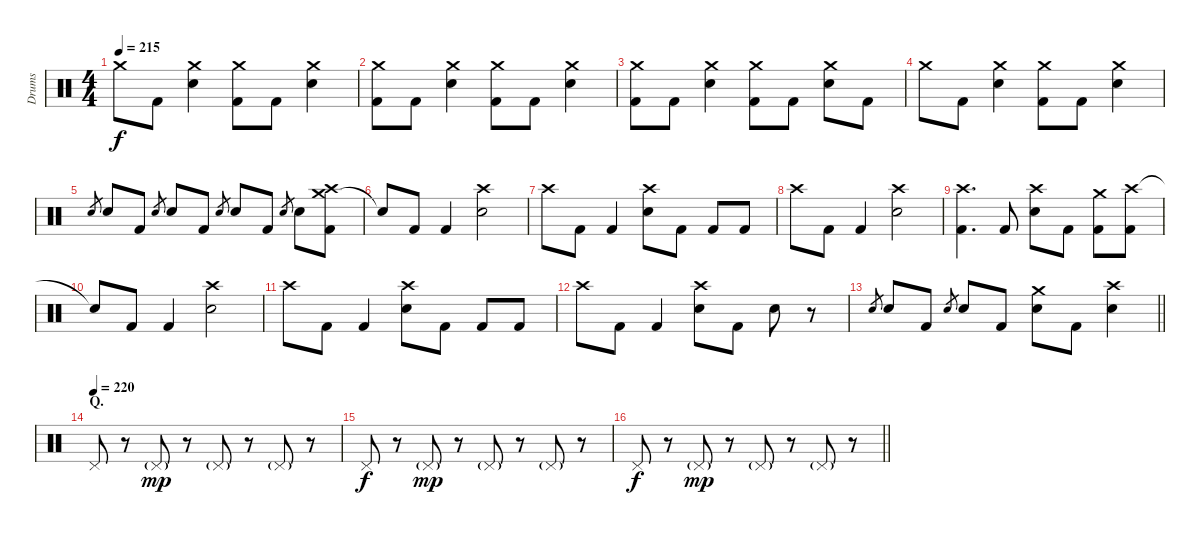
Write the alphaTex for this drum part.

\track ("Drums" "Drums") {instrument percussion}
\staff {score}
\articulation defaults
\ts (4 4)
\tempo 215
\clef neutral
\ks c "Crash medium (hit)".8{dy f} "Kick (hit) 2".8
("Crash medium (hit)" "Electric Snare (hit)").4 ("Crash medium (hit)" "Kick (hit) 2").8 "Kick (hit) 2".8 ("Crash medium (hit)" "Electric Snare (hit)").4 |
("Crash medium (hit)" "Kick (hit) 2").8 "Kick (hit) 2".8 ("Crash medium (hit)" "Electric Snare (hit)").4 ("Crash medium (hit)" "Kick (hit) 2").8 "Kick (hit) 2".8 ("Crash medium (hit)" "Electric Snare (hit)").4 |
("Crash medium (hit)" "Kick (hit) 2").8 "Kick (hit) 2".8 ("Crash medium (hit)" "Electric Snare (hit)").4 ("Crash medium (hit)" "Kick (hit) 2").8 "Kick (hit) 2".8 ("Crash medium (hit)" "Electric Snare (hit)").8 "Kick (hit) 2".8 |
"Crash medium (hit)".8 "Kick (hit) 2".8 ("Crash medium (hit)" "Electric Snare (hit)").4 ("Crash medium (hit)" "Kick (hit) 2").8 "Kick (hit) 2".8 ("Crash medium (hit)" "Electric Snare (hit)").4 |
"Electric Snare (hit)".8{gr} "Electric Snare (hit)".8 "Kick (hit) 2".8 "Electric Snare (hit)".8{gr} "Electric Snare (hit)".8 "Kick (hit) 2".8 "Electric Snare (hit)".8{gr} "Electric Snare (hit)".8 "Kick (hit) 2".8 "Electric Snare (hit)".8{gr} "Electric Snare (hit)".8 ("Crash medium (hit)" "Crash high (hit)" "Kick (hit) 2").8 |
"Snare (hit)"{t}.8 "Kick (hit) 2".8 "Kick (hit) 2".4 ("Crash high (hit)" "Electric Snare (hit)").2 |
"Crash high (hit)".8 "Kick (hit) 2".8 "Kick (hit) 2".4 ("Crash high (hit)" "Electric Snare (hit)").8 "Kick (hit) 2".8 "Kick (hit) 2".8 "Kick (hit) 2".8 |
"Crash high (hit)".8 "Kick (hit) 2".8 "Kick (hit) 2".4 ("Crash high (hit)" "Electric Snare (hit)").2 |
("Crash high (hit)" "Kick (hit) 2").4{d} "Kick (hit) 2".8 ("Crash high (hit)" "Electric Snare (hit)").8 "Kick (hit) 2".8 ("Crash medium (hit)" "Kick (hit) 2").8 ("Crash high (hit)" "Kick (hit) 2").8 |
"Snare (hit)"{t}.8 "Kick (hit) 2".8 "Kick (hit) 2".4 ("Crash high (hit)" "Electric Snare (hit)").2 |
"Crash high (hit)".8 "Kick (hit) 2".8 "Kick (hit) 2".4 ("Crash high (hit)" "Electric Snare (hit)").8 "Kick (hit) 2".8 "Kick (hit) 2".8 "Kick (hit) 2".8 |
"Crash high (hit)".8 "Kick (hit) 2".8 "Kick (hit) 2".4 ("Crash high (hit)" "Electric Snare (hit)").8 "Kick (hit) 2".8 "Electric Snare (hit)".8 r.8 |
\barLineRight lightlight "Electric Snare (hit)".8{gr} "Electric Snare (hit)".8 "Kick (hit) 2".8 "Electric Snare (hit)".8{gr} "Electric Snare (hit)".8 "Kick (hit) 2".8
("Crash medium (hit)" "Electric Snare (hit)").8 "Kick (hit) 2".8 ("Crash high (hit)" "Electric Snare (hit)").4 |
\section ("" "Q.")
\tempo (220)
"Pedal Hi-Hat (hit)".8 r.8 "Pedal Hi-Hat (hit)"{g}.8{dy mp} r.8 "Pedal Hi-Hat (hit)"{g}.8 r.8 "Pedal Hi-Hat (hit)"{g}.8 r.8 |
"Pedal Hi-Hat (hit)".8{dy f} r.8 "Pedal Hi-Hat (hit)"{g}.8{dy mp} r.8 "Pedal Hi-Hat (hit)"{g}.8 r.8 "Pedal Hi-Hat (hit)"{g}.8 r.8 |
\barLineRight lightlight "Pedal Hi-Hat (hit)".8{dy f}
r.8 "Pedal Hi-Hat (hit)"{g}.8{dy mp} r.8 "Pedal Hi-Hat (hit)"{g}.8 r.8 "Pedal Hi-Hat (hit)"{g}.8 r.8
